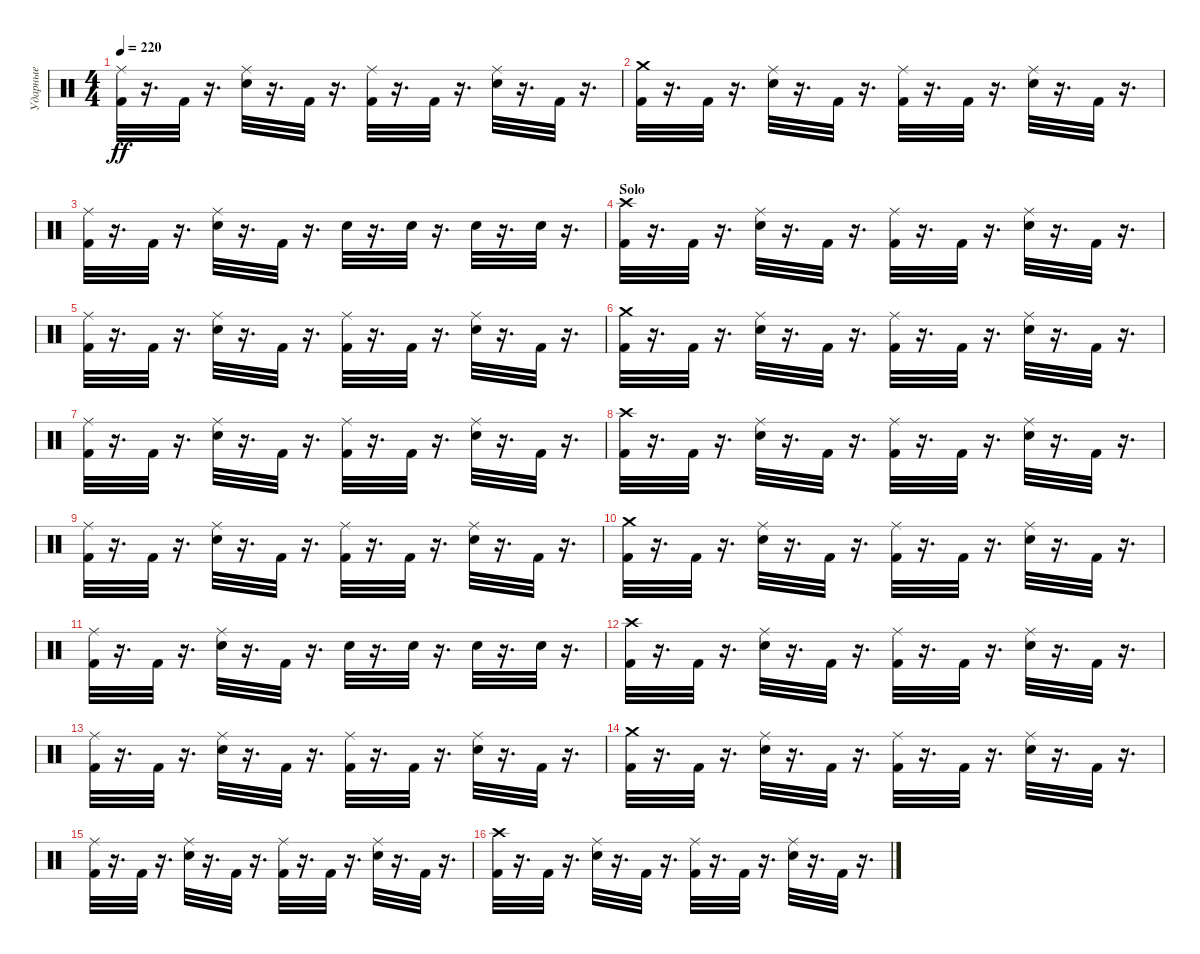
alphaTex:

\track ("Ударные" "Ударные") {instrument percussion}
\staff {score}
\articulation defaults
\ts (4 4)
\tempo 220
\clef neutral
\ks c
("Ride (middle)" "Kick (hit) 2").32{dy ff} r.16{d} "Kick (hit) 2".32 r.16{d} ("Ride (middle)" "Snare (hit) 2").32 r.16{d} "Kick (hit) 2".32 r.16{d} ("Ride (middle)" "Kick (hit) 2").32 r.16{d} "Kick (hit) 2".32 r.16{d} ("Ride (middle)" "Snare (hit) 2").32 r.16{d} "Kick (hit) 2".32 r.16{d} |
("Crash medium (hit)" "Kick (hit) 2").32 r.16{d} "Kick (hit) 2".32 r.16{d} ("Ride (middle)" "Snare (hit) 2").32 r.16{d} "Kick (hit) 2".32 r.16{d} ("Ride (middle)" "Kick (hit) 2").32 r.16{d} "Kick (hit) 2".32 r.16{d} ("Ride (middle)" "Snare (hit) 2").32 r.16{d} "Kick (hit) 2".32 r.16{d} |
("Ride (middle)" "Kick (hit) 2").32 r.16{d} "Kick (hit) 2".32 r.16{d} ("Ride (middle)" "Snare (hit) 2").32 r.16{d} "Kick (hit) 2".32 r.16{d} "Snare (hit) 2".32 r.16{d} "Snare (hit) 2".32 r.16{d} "Snare (hit) 2".32 r.16{d} "Snare (hit) 2".32 r.16{d} |
\section ("" "Solo")
("Crash high (hit)" "Kick (hit) 2").32 r.16{d} "Kick (hit) 2".32 r.16{d} ("Ride (middle)" "Snare (hit) 2").32 r.16{d} "Kick (hit) 2".32 r.16{d} ("Ride (middle)" "Kick (hit) 2").32 r.16{d} "Kick (hit) 2".32 r.16{d} ("Ride (middle)" "Snare (hit) 2").32 r.16{d} "Kick (hit) 2".32 r.16{d} |
("Ride (middle)" "Kick (hit) 2").32 r.16{d} "Kick (hit) 2".32 r.16{d} ("Ride (middle)" "Snare (hit) 2").32 r.16{d} "Kick (hit) 2".32 r.16{d} ("Ride (middle)" "Kick (hit) 2").32 r.16{d} "Kick (hit) 2".32 r.16{d} ("Ride (middle)" "Snare (hit) 2").32 r.16{d} "Kick (hit) 2".32 r.16{d} |
("Crash medium (hit)" "Kick (hit) 2").32 r.16{d} "Kick (hit) 2".32 r.16{d} ("Ride (middle)" "Snare (hit) 2").32 r.16{d} "Kick (hit) 2".32 r.16{d} ("Ride (middle)" "Kick (hit) 2").32 r.16{d} "Kick (hit) 2".32 r.16{d} ("Ride (middle)" "Snare (hit) 2").32 r.16{d} "Kick (hit) 2".32 r.16{d} |
("Ride (middle)" "Kick (hit) 2").32 r.16{d} "Kick (hit) 2".32 r.16{d} ("Ride (middle)" "Snare (hit) 2").32 r.16{d} "Kick (hit) 2".32 r.16{d} ("Ride (middle)" "Kick (hit) 2").32 r.16{d} "Kick (hit) 2".32 r.16{d} ("Ride (middle)" "Snare (hit) 2").32 r.16{d} "Kick (hit) 2".32 r.16{d} |
("Crash high (hit)" "Kick (hit) 2").32 r.16{d} "Kick (hit) 2".32 r.16{d} ("Ride (middle)" "Snare (hit) 2").32 r.16{d} "Kick (hit) 2".32 r.16{d} ("Ride (middle)" "Kick (hit) 2").32 r.16{d} "Kick (hit) 2".32 r.16{d} ("Ride (middle)" "Snare (hit) 2").32 r.16{d} "Kick (hit) 2".32 r.16{d} |
("Ride (middle)" "Kick (hit) 2").32 r.16{d} "Kick (hit) 2".32 r.16{d} ("Ride (middle)" "Snare (hit) 2").32 r.16{d} "Kick (hit) 2".32 r.16{d} ("Ride (middle)" "Kick (hit) 2").32 r.16{d} "Kick (hit) 2".32 r.16{d} ("Ride (middle)" "Snare (hit) 2").32 r.16{d} "Kick (hit) 2".32 r.16{d} |
("Crash medium (hit)" "Kick (hit) 2").32 r.16{d} "Kick (hit) 2".32 r.16{d} ("Ride (middle)" "Snare (hit) 2").32 r.16{d} "Kick (hit) 2".32 r.16{d} ("Ride (middle)" "Kick (hit) 2").32 r.16{d} "Kick (hit) 2".32 r.16{d} ("Ride (middle)" "Snare (hit) 2").32 r.16{d} "Kick (hit) 2".32 r.16{d} |
("Ride (middle)" "Kick (hit) 2").32 r.16{d} "Kick (hit) 2".32 r.16{d} ("Ride (middle)" "Snare (hit) 2").32 r.16{d} "Kick (hit) 2".32 r.16{d} "Snare (hit) 2".32 r.16{d} "Snare (hit) 2".32 r.16{d} "Snare (hit) 2".32 r.16{d} "Snare (hit) 2".32 r.16{d} |
("Crash high (hit)" "Kick (hit) 2").32 r.16{d} "Kick (hit) 2".32 r.16{d} ("Ride (middle)" "Snare (hit) 2").32 r.16{d} "Kick (hit) 2".32 r.16{d} ("Ride (middle)" "Kick (hit) 2").32 r.16{d} "Kick (hit) 2".32 r.16{d} ("Ride (middle)" "Snare (hit) 2").32 r.16{d} "Kick (hit) 2".32 r.16{d} |
("Ride (middle)" "Kick (hit) 2").32 r.16{d} "Kick (hit) 2".32 r.16{d} ("Ride (middle)" "Snare (hit) 2").32 r.16{d} "Kick (hit) 2".32 r.16{d} ("Ride (middle)" "Kick (hit) 2").32 r.16{d} "Kick (hit) 2".32 r.16{d} ("Ride (middle)" "Snare (hit) 2").32 r.16{d} "Kick (hit) 2".32 r.16{d} |
("Crash medium (hit)" "Kick (hit) 2").32 r.16{d} "Kick (hit) 2".32 r.16{d} ("Ride (middle)" "Snare (hit) 2").32 r.16{d} "Kick (hit) 2".32 r.16{d} ("Ride (middle)" "Kick (hit) 2").32 r.16{d} "Kick (hit) 2".32 r.16{d} ("Ride (middle)" "Snare (hit) 2").32 r.16{d} "Kick (hit) 2".32 r.16{d} |
("Ride (middle)" "Kick (hit) 2").32 r.16{d} "Kick (hit) 2".32 r.16{d} ("Ride (middle)" "Snare (hit) 2").32 r.16{d} "Kick (hit) 2".32 r.16{d} ("Ride (middle)" "Kick (hit) 2").32 r.16{d} "Kick (hit) 2".32 r.16{d} ("Ride (middle)" "Snare (hit) 2").32 r.16{d} "Kick (hit) 2".32 r.16{d} |
("Crash high (hit)" "Kick (hit) 2").32 r.16{d} "Kick (hit) 2".32 r.16{d} ("Ride (middle)" "Snare (hit) 2").32 r.16{d} "Kick (hit) 2".32 r.16{d} ("Ride (middle)" "Kick (hit) 2").32 r.16{d} "Kick (hit) 2".32 r.16{d} ("Ride (middle)" "Snare (hit) 2").32 r.16{d} "Kick (hit) 2".32 r.16{d}
